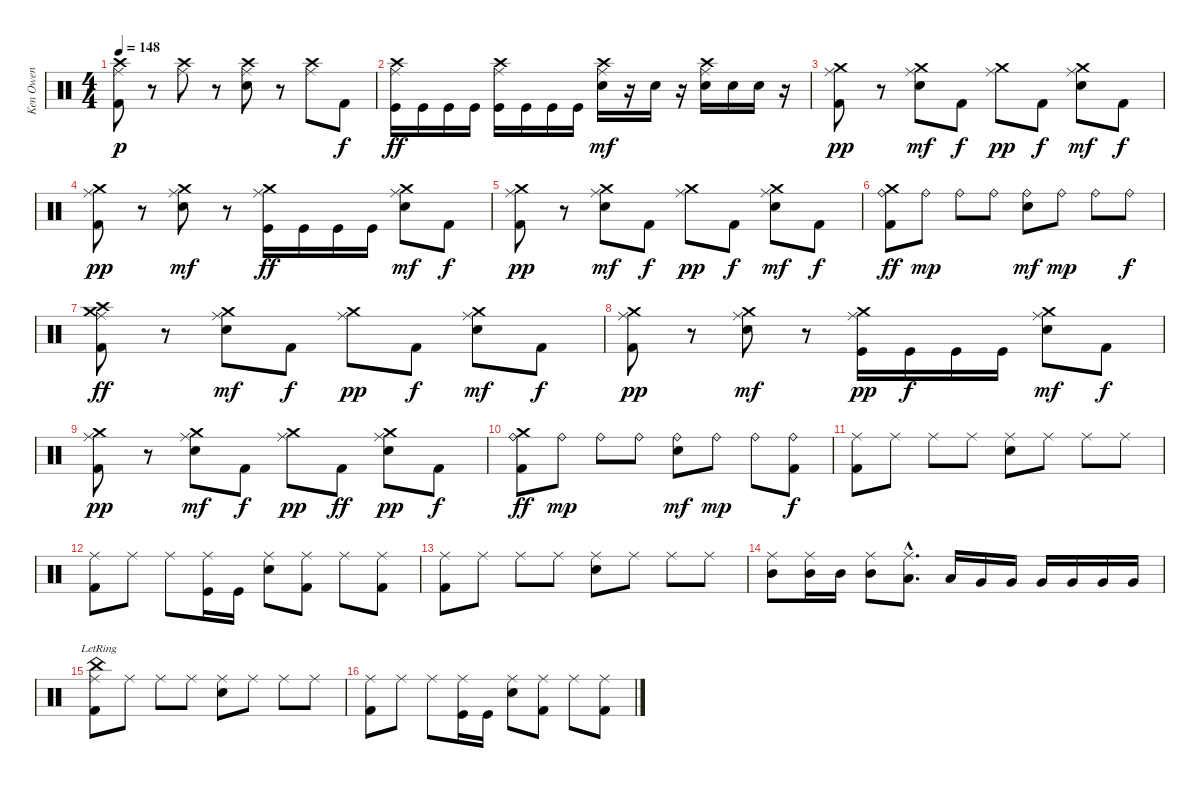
\track ("Ken Owen" "Ken Owen") {instrument percussion}
\staff {score}
\articulation defaults
\ts (4 4)
\tempo 148
\clef neutral
\ks c
("Crash high (hit)" "Ride (middle)" "Kick (hit) 2").8{dy p} r.8 ("Crash high (hit)" "Ride (middle)").8 r.8 ("Crash high (hit)" "Ride (middle)" "Snare (hit) 2").8 r.8 ("Crash high (hit)" "Ride (middle)").8 "Kick (hit) 2".8{dy f} |
("Crash high (hit)" "Ride (middle)" "Kick (hit)").16{dy ff} "Kick (hit)".16 "Kick (hit)".16 "Kick (hit)".16 ("Crash high (hit)" "Ride (middle)" "Kick (hit)").16 "Kick (hit)".16 "Kick (hit)".16 "Kick (hit)".16 ("Crash high (hit)" "Ride (middle)" "Snare (hit) 2").16{dy mf} r.16 "Snare (hit) 2".16 r.16 ("Crash high (hit)" "Ride (middle)" "Snare (hit) 2").16 "Snare (hit) 2".16 "Snare (hit) 2".16 r.16 |
("Crash medium (hit)" "Ride (middle)" "Kick (hit) 2").8{dy pp} r.8 ("Crash medium (hit)" "Ride (middle)" "Snare (hit) 2").8{dy mf} "Kick (hit) 2".8{dy f} ("Crash medium (hit)" "Ride (middle)").8{dy pp} "Kick (hit) 2".8{dy f} ("Crash medium (hit)" "Ride (middle)" "Snare (hit) 2").8{dy mf} "Kick (hit) 2".8{dy f} |
("Crash medium (hit)" "Ride (middle)" "Kick (hit) 2").8{dy pp} r.8 ("Crash medium (hit)" "Ride (middle)" "Snare (hit) 2").8{dy mf} r.8 ("Crash medium (hit)" "Ride (middle)" "Kick (hit)").16{dy ff} "Kick (hit)".16 "Kick (hit)".16 "Kick (hit)".16 ("Crash medium (hit)" "Ride (middle)" "Snare (hit) 2").8{dy mf} "Kick (hit) 2".8{dy f} |
("Crash medium (hit)" "Ride (middle)" "Kick (hit) 2").8{dy pp} r.8 ("Crash medium (hit)" "Ride (middle)" "Snare (hit) 2").8{dy mf} "Kick (hit) 2".8{dy f} ("Crash medium (hit)" "Ride (middle)").8{dy pp} "Kick (hit) 2".8{dy f} ("Crash medium (hit)" "Ride (middle)" "Snare (hit) 2").8{dy mf} "Kick (hit) 2".8{dy f} |
("Ride (bell)" "Kick (hit) 2" "Crash medium (hit)").8{dy ff} "Ride (bell)".8{dy mp} "Ride (bell)".8 "Ride (bell)".8 ("Ride (bell)" "Snare (hit) 2").8{dy mf} "Ride (bell)".8{dy mp} "Ride (bell)".8 "Ride (bell)".8{dy f} |
("Crash medium (hit)" "Ride (middle)" "Kick (hit) 2" "Crash high (hit)").8{dy ff} r.8 ("Crash medium (hit)" "Ride (middle)" "Snare (hit) 2").8{dy mf} "Kick (hit) 2".8{dy f} ("Crash medium (hit)" "Ride (middle)").8{dy pp} "Kick (hit) 2".8{dy f} ("Crash medium (hit)" "Ride (middle)" "Snare (hit) 2").8{dy mf} "Kick (hit) 2".8{dy f} |
("Crash medium (hit)" "Ride (middle)" "Kick (hit) 2").8{dy pp} r.8 ("Crash medium (hit)" "Ride (middle)" "Snare (hit) 2").8{dy mf} r.8 ("Crash medium (hit)" "Ride (middle)" "Kick (hit)").16{dy pp} "Kick (hit)".16{dy f} "Kick (hit)".16 "Kick (hit)".16 ("Crash medium (hit)" "Ride (middle)" "Snare (hit) 2").8{dy mf} "Kick (hit) 2".8{dy f} |
("Crash medium (hit)" "Ride (middle)" "Kick (hit) 2").8{dy pp} r.8 ("Crash medium (hit)" "Ride (middle)" "Snare (hit) 2").8{dy mf} "Kick (hit) 2".8{dy f} ("Crash medium (hit)" "Ride (middle)").8{dy pp} "Kick (hit) 2".8{dy ff} ("Crash medium (hit)" "Ride (middle)" "Snare (hit) 2").8{dy pp} "Kick (hit) 2".8{dy f} |
("Ride (bell)" "Kick (hit) 2" "Crash medium (hit)").8{dy ff} "Ride (bell)".8{dy mp} "Ride (bell)".8 "Ride (bell)".8 ("Ride (bell)" "Snare (hit) 2").8{dy mf} "Ride (bell)".8{dy mp} "Ride (bell)".8 ("Ride (bell)" "Kick (hit) 2").8{dy f} |
("Ride (middle)" "Kick (hit) 2").8 "Ride (middle)".8 "Ride (middle)".8 "Ride (middle)".8 ("Ride (middle)" "Snare (hit) 2").8 "Ride (middle)".8 "Ride (middle)".8 "Ride (middle)".8 |
("Ride (middle)" "Kick (hit) 2").8 "Ride (middle)".8 "Ride (middle)".8 ("Ride (middle)" "Kick (hit)").16 "Kick (hit)".16 ("Ride (middle)" "Snare (hit) 2").8 ("Ride (middle)" "Kick (hit) 2").8 "Ride (middle)".8 ("Ride (middle)" "Kick (hit) 2").8 |
("Ride (middle)" "Kick (hit) 2").8 "Ride (middle)".8 "Ride (middle)".8 "Ride (middle)".8 ("Ride (middle)" "Snare (hit) 2").8 "Ride (middle)".8 "Ride (middle)".8 "Ride (middle)".8 |
("Ride (middle)" "Mid Tom (hit)").8 ("Ride (middle)" "Mid Tom (hit)").16 "Mid Tom (hit)".16 ("Ride (middle)" "Mid Tom (hit)").8 ("Ride (middle)"{hac} "Low Tom (hit)"{hac}).8{d} "Low Tom (hit)".16 "Very Low Tom (hit)".16 "Very Low Tom (hit)".16 "Very Low Tom (hit)".16 "Very Low Tom (hit)".16 "Very Low Tom (hit)".16 "Very Low Tom (hit)".16 |
("Ride (middle)" "Kick (hit) 2" "China (hit)"{lr}).8 "Ride (middle)".8 "Ride (middle)".8 "Ride (middle)".8 ("Ride (middle)" "Snare (hit) 2").8 "Ride (middle)".8 "Ride (middle)".8 "Ride (middle)".8 |
("Ride (middle)" "Kick (hit) 2").8 "Ride (middle)".8 "Ride (middle)".8 ("Ride (middle)" "Kick (hit)").16 "Kick (hit)".16 ("Ride (middle)" "Snare (hit) 2").8 ("Ride (middle)" "Kick (hit) 2").8 "Ride (middle)".8 ("Ride (middle)" "Kick (hit) 2").8
